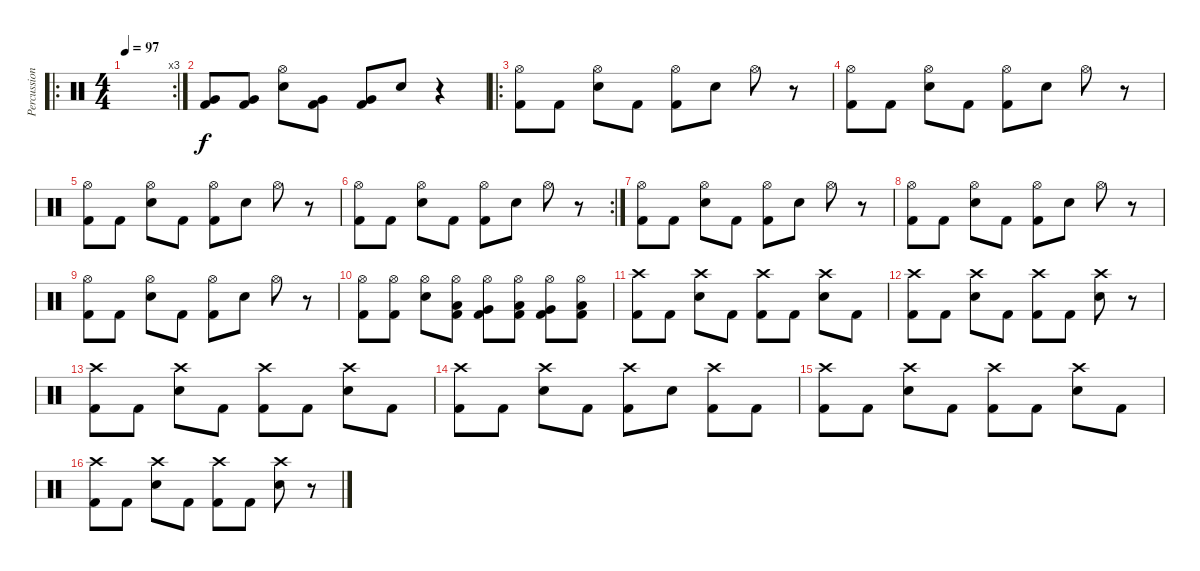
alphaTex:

\track ("Percussion" "Percussion") {instrument percussion}
\staff {score}
\articulation defaults
\ro
\rc 3
\ts (4 4)
\tempo 97
\clef neutral
\ks c
|
("Very Low Tom (hit)" "Kick (hit) 2").8 ("Very Low Tom (hit)" "Kick (hit) 2").8 ("Hi-Hat (open)" "Electric Snare (hit)").8 ("Very Low Tom (hit)" "Kick (hit) 2").8 ("Very Low Tom (hit)" "Kick (hit) 2").8 "Electric Snare (hit)".8 r.4 |
\ro
("Hi-Hat (open)" "Kick (hit) 2").8 "Kick (hit) 2".8 ("Hi-Hat (open)" "Electric Snare (hit)").8 "Kick (hit) 2".8 ("Hi-Hat (open)" "Kick (hit) 2").8 "Electric Snare (hit)".8 "Hi-Hat (open)".8 r.8 |
("Hi-Hat (open)" "Kick (hit) 2").8 "Kick (hit) 2".8 ("Hi-Hat (open)" "Electric Snare (hit)").8 "Kick (hit) 2".8 ("Hi-Hat (open)" "Kick (hit) 2").8 "Electric Snare (hit)".8 "Hi-Hat (open)".8 r.8 |
("Hi-Hat (open)" "Kick (hit) 2").8 "Kick (hit) 2".8 ("Hi-Hat (open)" "Electric Snare (hit)").8 "Kick (hit) 2".8 ("Hi-Hat (open)" "Kick (hit) 2").8 "Electric Snare (hit)".8 "Hi-Hat (open)".8 r.8 |
\rc 2
("Hi-Hat (open)" "Kick (hit) 2").8 "Kick (hit) 2".8 ("Hi-Hat (open)" "Electric Snare (hit)").8 "Kick (hit) 2".8 ("Hi-Hat (open)" "Kick (hit) 2").8 "Electric Snare (hit)".8 "Hi-Hat (open)".8 r.8 |
("Hi-Hat (open)" "Kick (hit) 2").8 "Kick (hit) 2".8 ("Hi-Hat (open)" "Electric Snare (hit)").8 "Kick (hit) 2".8 ("Hi-Hat (open)" "Kick (hit) 2").8 "Electric Snare (hit)".8 "Hi-Hat (open)".8 r.8 |
("Hi-Hat (open)" "Kick (hit) 2").8 "Kick (hit) 2".8 ("Hi-Hat (open)" "Electric Snare (hit)").8 "Kick (hit) 2".8 ("Hi-Hat (open)" "Kick (hit) 2").8 "Electric Snare (hit)".8 "Hi-Hat (open)".8 r.8 |
("Hi-Hat (open)" "Kick (hit) 2").8 "Kick (hit) 2".8 ("Hi-Hat (open)" "Electric Snare (hit)").8 "Kick (hit) 2".8 ("Hi-Hat (open)" "Kick (hit) 2").8 "Electric Snare (hit)".8 "Hi-Hat (open)".8 r.8 |
("Hi-Hat (open)" "Kick (hit) 2").8 ("Hi-Hat (open)" "Kick (hit) 2").8 ("Hi-Hat (open)" "Electric Snare (hit)").8 ("Hi-Hat (open)" "Low Tom (hit)" "Kick (hit) 2").8 ("Hi-Hat (open)" "Very Low Tom (hit)" "Kick (hit) 2").8 ("Hi-Hat (open)" "Low Tom (hit)" "Kick (hit) 2").8 ("Hi-Hat (open)" "Very Low Tom (hit)" "Kick (hit) 2").8 ("Hi-Hat (open)" "Low Floor Tom (hit)" "Kick (hit) 2").8 |
("Crash high (hit)" "Kick (hit) 2").8 "Kick (hit) 2".8 ("Crash high (hit)" "Electric Snare (hit)").8 "Kick (hit) 2".8 ("Crash high (hit)" "Kick (hit) 2").8 "Kick (hit) 2".8 ("Crash high (hit)" "Electric Snare (hit)").8 "Kick (hit) 2".8 |
("Crash high (hit)" "Kick (hit) 2").8 "Kick (hit) 2".8 ("Crash high (hit)" "Electric Snare (hit)").8 "Kick (hit) 2".8 ("Crash high (hit)" "Kick (hit) 2").8 "Kick (hit) 2".8 ("Crash high (hit)" "Electric Snare (hit)").8 r.8 |
("Crash high (hit)" "Kick (hit) 2").8 "Kick (hit) 2".8 ("Crash high (hit)" "Electric Snare (hit)").8 "Kick (hit) 2".8 ("Crash high (hit)" "Kick (hit) 2").8 "Kick (hit) 2".8 ("Crash high (hit)" "Electric Snare (hit)").8 "Kick (hit) 2".8 |
("Crash high (hit)" "Kick (hit) 2").8 "Kick (hit) 2".8 ("Crash high (hit)" "Electric Snare (hit)").8 "Kick (hit) 2".8 ("Crash high (hit)" "Kick (hit) 2").8 "Electric Snare (hit)".8 ("Crash high (hit)" "Kick (hit) 2").8 "Kick (hit) 2".8 |
("Crash high (hit)" "Kick (hit) 2").8 "Kick (hit) 2".8 ("Crash high (hit)" "Electric Snare (hit)").8 "Kick (hit) 2".8 ("Crash high (hit)" "Kick (hit) 2").8 "Kick (hit) 2".8 ("Crash high (hit)" "Electric Snare (hit)").8 "Kick (hit) 2".8 |
("Crash high (hit)" "Kick (hit) 2").8 "Kick (hit) 2".8 ("Crash high (hit)" "Electric Snare (hit)").8 "Kick (hit) 2".8 ("Crash high (hit)" "Kick (hit) 2").8 "Kick (hit) 2".8 ("Crash high (hit)" "Electric Snare (hit)").8 r.8
